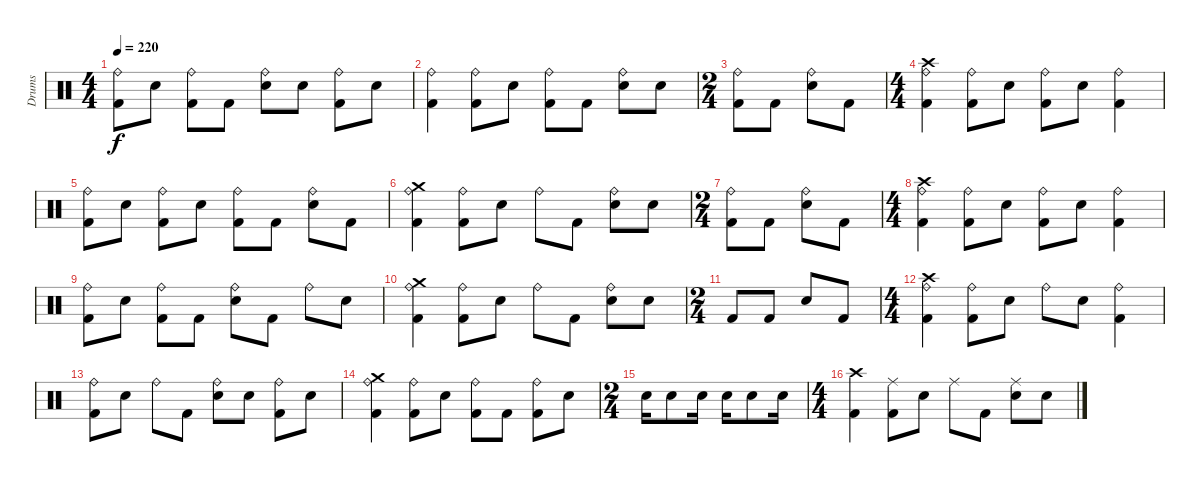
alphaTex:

\track ("Drums" "Drums") {instrument percussion}
\staff {score}
\articulation defaults
\ts (4 4)
\tempo 220
\clef neutral
\ks c
("Ride (bell)" "Kick (hit) 2").8{dy f} "Electric Snare (hit)".8 ("Ride (bell)" "Kick (hit) 2").8 "Kick (hit) 2".8 ("Ride (bell)" "Electric Snare (hit)").8 "Electric Snare (hit)".8 ("Ride (bell)" "Kick (hit) 2").8 "Electric Snare (hit)".8 |
("Ride (bell)" "Kick (hit) 2").4 ("Ride (bell)" "Kick (hit) 2").8 "Electric Snare (hit)".8 ("Ride (bell)" "Kick (hit) 2").8 "Kick (hit) 2".8 ("Ride (bell)" "Electric Snare (hit)").8 "Electric Snare (hit)".8 |
\ts (2 4)
("Ride (bell)" "Kick (hit) 2").8 "Kick (hit) 2".8 ("Ride (bell)" "Electric Snare (hit)").8 "Kick (hit) 2".8 |
\ts (4 4)
("Crash high (hit)" "Ride (bell)" "Kick (hit) 2").4 ("Ride (bell)" "Kick (hit) 2").8 "Electric Snare (hit)".8 ("Ride (bell)" "Kick (hit) 2").8 "Electric Snare (hit)".8 ("Ride (bell)" "Kick (hit) 2").4 |
("Ride (bell)" "Kick (hit) 2").8 "Electric Snare (hit)".8 ("Ride (bell)" "Kick (hit) 2").8 "Electric Snare (hit)".8 ("Ride (bell)" "Kick (hit) 2").8 "Kick (hit) 2".8 ("Ride (bell)" "Electric Snare (hit)").8 "Kick (hit) 2".8 |
("Crash medium (hit)" "Ride (bell)" "Kick (hit) 2").4 ("Ride (bell)" "Kick (hit) 2").8 "Electric Snare (hit)".8 "Ride (bell)".8 "Kick (hit) 2".8 ("Ride (bell)" "Electric Snare (hit)").8 "Electric Snare (hit)".8 |
\ts (2 4)
("Ride (bell)" "Kick (hit) 2").8 "Kick (hit) 2".8 ("Ride (bell)" "Electric Snare (hit)").8 "Kick (hit) 2".8 |
\ts (4 4)
("Crash high (hit)" "Ride (bell)" "Kick (hit) 2").4 ("Ride (bell)" "Kick (hit) 2").8 "Electric Snare (hit)".8 ("Ride (bell)" "Kick (hit) 2").8 "Electric Snare (hit)".8 ("Ride (bell)" "Kick (hit) 2").4 |
("Ride (bell)" "Kick (hit) 2").8 "Electric Snare (hit)".8 ("Ride (bell)" "Kick (hit) 2").8 "Kick (hit) 2".8 ("Ride (bell)" "Electric Snare (hit)").8 "Kick (hit) 2".8 "Ride (bell)".8 "Electric Snare (hit)".8 |
("Crash medium (hit)" "Ride (bell)" "Kick (hit) 2").4 ("Ride (bell)" "Kick (hit) 2").8 "Electric Snare (hit)".8 "Ride (bell)".8 "Kick (hit) 2".8 ("Ride (bell)" "Electric Snare (hit)").8 "Electric Snare (hit)".8 |
\ts (2 4)
"Kick (hit) 2".8 "Kick (hit) 2".8 "Electric Snare (hit)".8 "Kick (hit) 2".8 |
\ts (4 4)
("Crash high (hit)" "Ride (bell)" "Kick (hit) 2").4 ("Ride (bell)" "Kick (hit) 2").8 "Electric Snare (hit)".8 "Ride (bell)".8 "Electric Snare (hit)".8 ("Ride (bell)" "Kick (hit) 2").4 |
("Ride (bell)" "Kick (hit) 2").8 "Electric Snare (hit)".8 "Ride (bell)".8 "Kick (hit) 2".8 ("Ride (bell)" "Electric Snare (hit)").8 "Electric Snare (hit)".8 ("Ride (bell)" "Kick (hit) 2").8 "Electric Snare (hit)".8 |
("Crash medium (hit)" "Ride (bell)" "Kick (hit) 2").4 ("Ride (bell)" "Kick (hit) 2").8 "Electric Snare (hit)".8 ("Ride (bell)" "Kick (hit) 2").8 "Kick (hit) 2".8 ("Ride (bell)" "Kick (hit) 2").8 "Electric Snare (hit)".8 |
\ts (2 4)
"Electric Snare (hit)".16 "Electric Snare (hit)".8 "Electric Snare (hit)".16 "Electric Snare (hit)".16 "Electric Snare (hit)".8 "Electric Snare (hit)".16 |
\ts (4 4)
("Crash high (hit)" "Kick (hit) 2").4 ("Ride (middle)" "Kick (hit) 2").8 "Electric Snare (hit)".8 "Ride (middle)".8 "Kick (hit) 2".8 ("Ride (middle)" "Electric Snare (hit)").8 "Electric Snare (hit)".8
